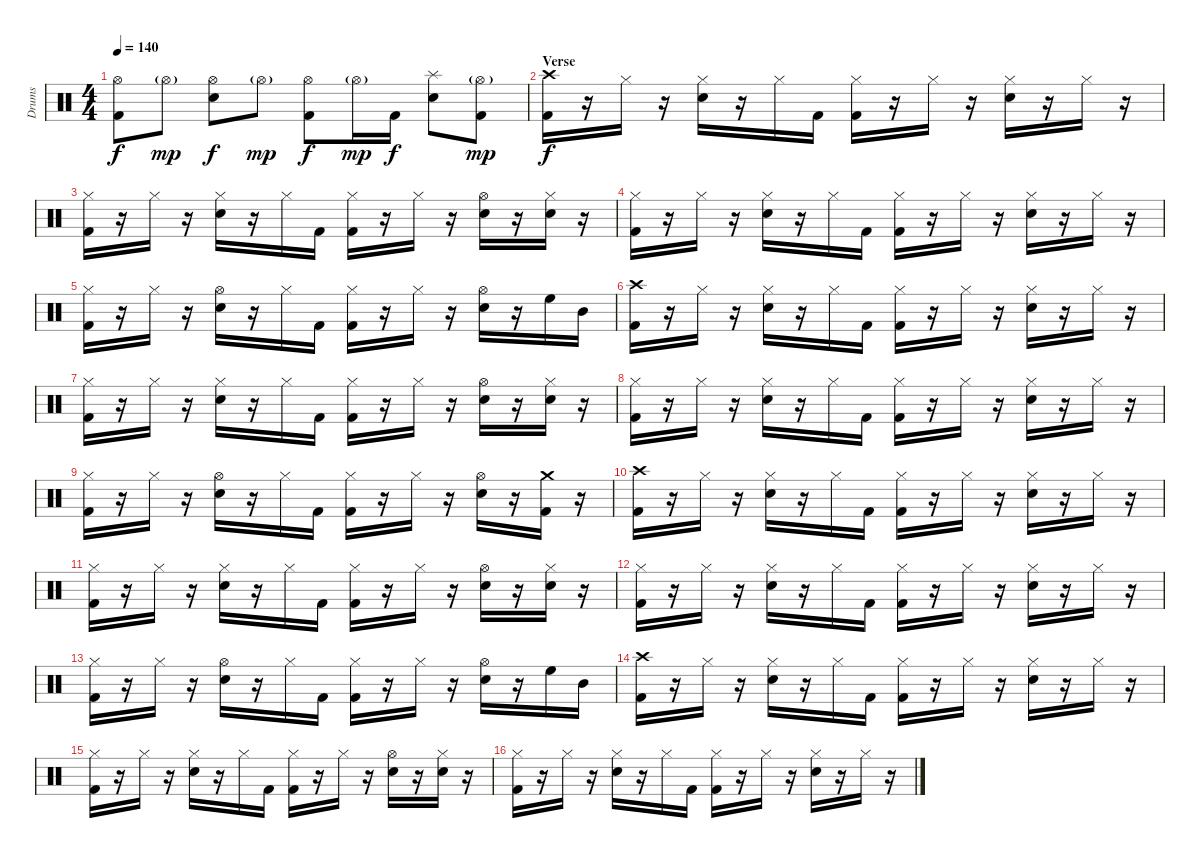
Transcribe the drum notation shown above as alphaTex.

\track ("Drums" "Drums") {instrument percussion}
\staff {score}
\articulation defaults
\ts (4 4)
\tempo 140
\clef neutral
\ks c
("Hi-Hat (open)" "Kick (hit) 2").8{dy f} "Hi-Hat (open)"{g}.8{dy mp} ("Hi-Hat (open)" "Electric Snare (hit)").8{dy f} "Hi-Hat (open)"{g}.8{dy mp} ("Hi-Hat (open)" "Kick (hit) 2").8{dy f} "Hi-Hat (open)"{g}.16{dy mp} "Kick (hit) 2".16{dy f} ("Splash (hit)" "Electric Snare (hit)").8 ("Hi-Hat (open)"{g} "Kick (hit) 2").8{dy mp} |
\section ("" "Verse")
("Crash high (hit)" "Kick (hit) 2").16{dy f} r.16 "Hi-Hat (closed)".16 r.16 ("Hi-Hat (closed)" "Electric Snare (hit)").16 r.16 "Hi-Hat (closed)".16 "Kick (hit) 2".16 ("Hi-Hat (closed)" "Kick (hit) 2").16 r.16 "Hi-Hat (closed)".16 r.16 ("Hi-Hat (closed)" "Electric Snare (hit)").16 r.16 "Hi-Hat (closed)".16 r.16 |
("Hi-Hat (closed)" "Kick (hit) 2").16 r.16 "Hi-Hat (closed)".16 r.16 ("Hi-Hat (closed)" "Electric Snare (hit)").16 r.16 "Hi-Hat (closed)".16 "Kick (hit) 2".16 ("Hi-Hat (closed)" "Kick (hit) 2").16 r.16 "Hi-Hat (closed)".16 r.16 ("Hi-Hat (open)" "Electric Snare (hit)").16 r.16 ("Hi-Hat (closed)" "Electric Snare (hit)").16 r.16 |
("Hi-Hat (closed)" "Kick (hit) 2").16 r.16 "Hi-Hat (closed)".16 r.16 ("Hi-Hat (closed)" "Electric Snare (hit)").16 r.16 "Hi-Hat (closed)".16 "Kick (hit) 2".16 ("Hi-Hat (closed)" "Kick (hit) 2").16 r.16 "Hi-Hat (closed)".16 r.16 ("Hi-Hat (closed)" "Electric Snare (hit)").16 r.16 "Hi-Hat (closed)".16 r.16 |
("Hi-Hat (closed)" "Kick (hit) 2").16 r.16 "Hi-Hat (closed)".16 r.16 ("Hi-Hat (open)" "Electric Snare (hit)").16 r.16 "Hi-Hat (closed)".16 "Kick (hit) 2".16 ("Hi-Hat (closed)" "Kick (hit) 2").16 r.16 "Hi-Hat (closed)".16 r.16 ("Hi-Hat (open)" "Electric Snare (hit)").16 r.16 "High Floor Tom (hit)".16 "Mid Tom (hit)".16 |
("Crash high (hit)" "Kick (hit) 2").16 r.16 "Hi-Hat (closed)".16 r.16 ("Hi-Hat (closed)" "Electric Snare (hit)").16 r.16 "Hi-Hat (closed)".16 "Kick (hit) 2".16 ("Hi-Hat (closed)" "Kick (hit) 2").16 r.16 "Hi-Hat (closed)".16 r.16 ("Hi-Hat (closed)" "Electric Snare (hit)").16 r.16 "Hi-Hat (closed)".16 r.16 |
("Hi-Hat (closed)" "Kick (hit) 2").16 r.16 "Hi-Hat (closed)".16 r.16 ("Hi-Hat (closed)" "Electric Snare (hit)").16 r.16 "Hi-Hat (closed)".16 "Kick (hit) 2".16 ("Hi-Hat (closed)" "Kick (hit) 2").16 r.16 "Hi-Hat (closed)".16 r.16 ("Hi-Hat (open)" "Electric Snare (hit)").16 r.16 ("Hi-Hat (closed)" "Electric Snare (hit)").16 r.16 |
("Hi-Hat (closed)" "Kick (hit) 2").16 r.16 "Hi-Hat (closed)".16 r.16 ("Hi-Hat (closed)" "Electric Snare (hit)").16 r.16 "Hi-Hat (closed)".16 "Kick (hit) 2".16 ("Hi-Hat (closed)" "Kick (hit) 2").16 r.16 "Hi-Hat (closed)".16 r.16 ("Hi-Hat (closed)" "Electric Snare (hit)").16 r.16 "Hi-Hat (closed)".16 r.16 |
("Hi-Hat (closed)" "Kick (hit) 2").16 r.16 "Hi-Hat (closed)".16 r.16 ("Hi-Hat (open)" "Electric Snare (hit)").16 r.16 "Hi-Hat (closed)".16 "Kick (hit) 2".16 ("Hi-Hat (closed)" "Kick (hit) 2").16 r.16 "Hi-Hat (closed)".16 r.16 ("Hi-Hat (open)" "Electric Snare (hit)").16 r.16 ("Crash medium (hit)" "Kick (hit) 2").16 r.16 |
("Crash high (hit)" "Kick (hit) 2").16 r.16 "Hi-Hat (closed)".16 r.16 ("Hi-Hat (closed)" "Electric Snare (hit)").16 r.16 "Hi-Hat (closed)".16 "Kick (hit) 2".16 ("Hi-Hat (closed)" "Kick (hit) 2").16 r.16 "Hi-Hat (closed)".16 r.16 ("Hi-Hat (closed)" "Electric Snare (hit)").16 r.16 "Hi-Hat (closed)".16 r.16 |
("Hi-Hat (closed)" "Kick (hit) 2").16 r.16 "Hi-Hat (closed)".16 r.16 ("Hi-Hat (closed)" "Electric Snare (hit)").16 r.16 "Hi-Hat (closed)".16 "Kick (hit) 2".16 ("Hi-Hat (closed)" "Kick (hit) 2").16 r.16 "Hi-Hat (closed)".16 r.16 ("Hi-Hat (open)" "Electric Snare (hit)").16 r.16 ("Hi-Hat (closed)" "Electric Snare (hit)").16 r.16 |
("Hi-Hat (closed)" "Kick (hit) 2").16 r.16 "Hi-Hat (closed)".16 r.16 ("Hi-Hat (closed)" "Electric Snare (hit)").16 r.16 "Hi-Hat (closed)".16 "Kick (hit) 2".16 ("Hi-Hat (closed)" "Kick (hit) 2").16 r.16 "Hi-Hat (closed)".16 r.16 ("Hi-Hat (closed)" "Electric Snare (hit)").16 r.16 "Hi-Hat (closed)".16 r.16 |
("Hi-Hat (closed)" "Kick (hit) 2").16 r.16 "Hi-Hat (closed)".16 r.16 ("Hi-Hat (open)" "Electric Snare (hit)").16 r.16 "Hi-Hat (closed)".16 "Kick (hit) 2".16 ("Hi-Hat (closed)" "Kick (hit) 2").16 r.16 "Hi-Hat (closed)".16 r.16 ("Hi-Hat (open)" "Electric Snare (hit)").16 r.16 "High Floor Tom (hit)".16 "Mid Tom (hit)".16 |
("Crash high (hit)" "Kick (hit) 2").16 r.16 "Hi-Hat (closed)".16 r.16 ("Hi-Hat (closed)" "Electric Snare (hit)").16 r.16 "Hi-Hat (closed)".16 "Kick (hit) 2".16 ("Hi-Hat (closed)" "Kick (hit) 2").16 r.16 "Hi-Hat (closed)".16 r.16 ("Hi-Hat (closed)" "Electric Snare (hit)").16 r.16 "Hi-Hat (closed)".16 r.16 |
("Hi-Hat (closed)" "Kick (hit) 2").16 r.16 "Hi-Hat (closed)".16 r.16 ("Hi-Hat (closed)" "Electric Snare (hit)").16 r.16 "Hi-Hat (closed)".16 "Kick (hit) 2".16 ("Hi-Hat (closed)" "Kick (hit) 2").16 r.16 "Hi-Hat (closed)".16 r.16 ("Hi-Hat (open)" "Electric Snare (hit)").16 r.16 ("Hi-Hat (closed)" "Electric Snare (hit)").16 r.16 |
("Hi-Hat (closed)" "Kick (hit) 2").16 r.16 "Hi-Hat (closed)".16 r.16 ("Hi-Hat (closed)" "Electric Snare (hit)").16 r.16 "Hi-Hat (closed)".16 "Kick (hit) 2".16 ("Hi-Hat (closed)" "Kick (hit) 2").16 r.16 "Hi-Hat (closed)".16 r.16 ("Hi-Hat (closed)" "Electric Snare (hit)").16 r.16 "Hi-Hat (closed)".16 r.16
